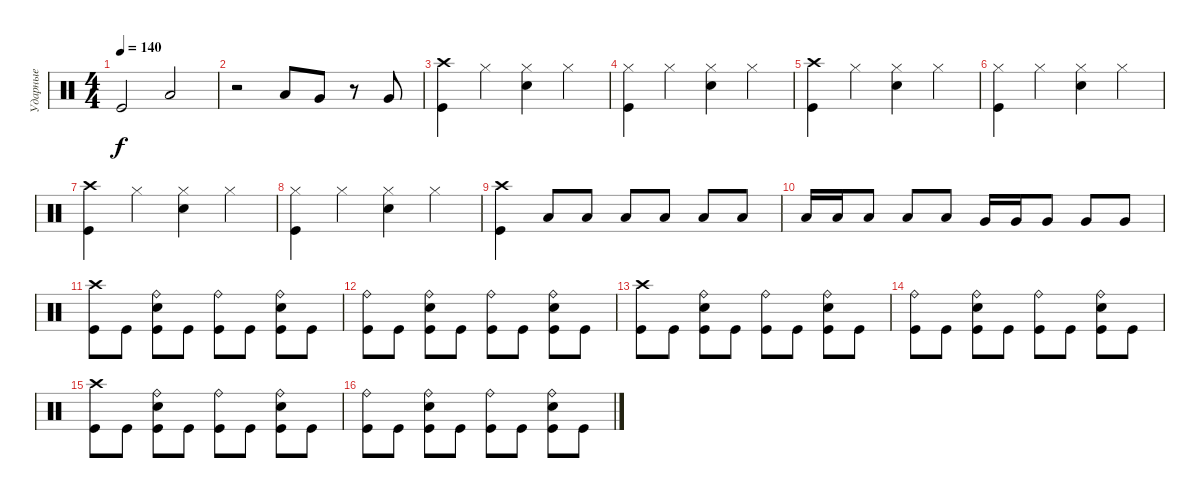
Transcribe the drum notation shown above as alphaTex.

\track ("Ударные" "Ударные") {instrument percussion}
\staff {score}
\articulation defaults
\ts (4 4)
\tempo 140
\clef neutral
\ks c "Kick (hit)".2{dy f} "Low Tom (hit)".2
|
r.2 "Low Tom (hit)".8 "Very Low Tom (hit)".8 r.8 "Very Low Tom (hit)".8 |
("Crash high (hit)" "Kick (hit)").4 "Hi-Hat (closed)".4 ("Hi-Hat (closed)" "Electric Snare (hit)").4 "Hi-Hat (closed)".4 |
("Hi-Hat (closed)" "Kick (hit)").4 "Hi-Hat (closed)".4 ("Hi-Hat (closed)" "Electric Snare (hit)").4 "Hi-Hat (closed)".4 |
("Crash high (hit)" "Kick (hit)").4 "Hi-Hat (closed)".4 ("Hi-Hat (closed)" "Electric Snare (hit)").4 "Hi-Hat (closed)".4 |
("Hi-Hat (closed)" "Kick (hit)").4 "Hi-Hat (closed)".4 ("Hi-Hat (closed)" "Electric Snare (hit)").4 "Hi-Hat (closed)".4 |
("Crash high (hit)" "Kick (hit)").4 "Hi-Hat (closed)".4 ("Hi-Hat (closed)" "Electric Snare (hit)").4 "Hi-Hat (closed)".4 |
("Hi-Hat (closed)" "Kick (hit)").4 "Hi-Hat (closed)".4 ("Hi-Hat (closed)" "Electric Snare (hit)").4 "Hi-Hat (closed)".4 |
("Crash high (hit)" "Kick (hit)").4 "Low Tom (hit)".8 "Low Tom (hit)".8 "Low Tom (hit)".8 "Low Tom (hit)".8 "Low Tom (hit)".8 "Low Tom (hit)".8 |
"Low Tom (hit)".16 "Low Tom (hit)".16 "Low Tom (hit)".8 "Low Tom (hit)".8 "Low Tom (hit)".8 "Very Low Tom (hit)".16 "Very Low Tom (hit)".16 "Very Low Tom (hit)".8 "Very Low Tom (hit)".8 "Very Low Tom (hit)".8 |
("Crash high (hit)" "Kick (hit)").8 "Kick (hit)".8 ("Ride (bell)" "Electric Snare (hit)" "Kick (hit)").8 "Kick (hit)".8 ("Ride (bell)" "Kick (hit)").8 "Kick (hit)".8 ("Ride (bell)" "Electric Snare (hit)" "Kick (hit)").8 "Kick (hit)".8 |
("Ride (bell)" "Kick (hit)").8 "Kick (hit)".8 ("Ride (bell)" "Electric Snare (hit)" "Kick (hit)").8 "Kick (hit)".8 ("Ride (bell)" "Kick (hit)").8 "Kick (hit)".8 ("Ride (bell)" "Electric Snare (hit)" "Kick (hit)").8 "Kick (hit)".8 |
("Crash high (hit)" "Kick (hit)").8 "Kick (hit)".8 ("Ride (bell)" "Electric Snare (hit)" "Kick (hit)").8 "Kick (hit)".8 ("Ride (bell)" "Kick (hit)").8 "Kick (hit)".8 ("Ride (bell)" "Electric Snare (hit)" "Kick (hit)").8 "Kick (hit)".8 |
("Ride (bell)" "Kick (hit)").8 "Kick (hit)".8 ("Ride (bell)" "Electric Snare (hit)" "Kick (hit)").8 "Kick (hit)".8 ("Ride (bell)" "Kick (hit)").8 "Kick (hit)".8 ("Ride (bell)" "Electric Snare (hit)" "Kick (hit)").8 "Kick (hit)".8 |
("Crash high (hit)" "Kick (hit)").8 "Kick (hit)".8 ("Ride (bell)" "Electric Snare (hit)" "Kick (hit)").8 "Kick (hit)".8 ("Ride (bell)" "Kick (hit)").8 "Kick (hit)".8 ("Ride (bell)" "Electric Snare (hit)" "Kick (hit)").8 "Kick (hit)".8 |
("Ride (bell)" "Kick (hit)").8 "Kick (hit)".8 ("Ride (bell)" "Electric Snare (hit)" "Kick (hit)").8 "Kick (hit)".8 ("Ride (bell)" "Kick (hit)").8 "Kick (hit)".8 ("Ride (bell)" "Electric Snare (hit)" "Kick (hit)").8 "Kick (hit)".8
